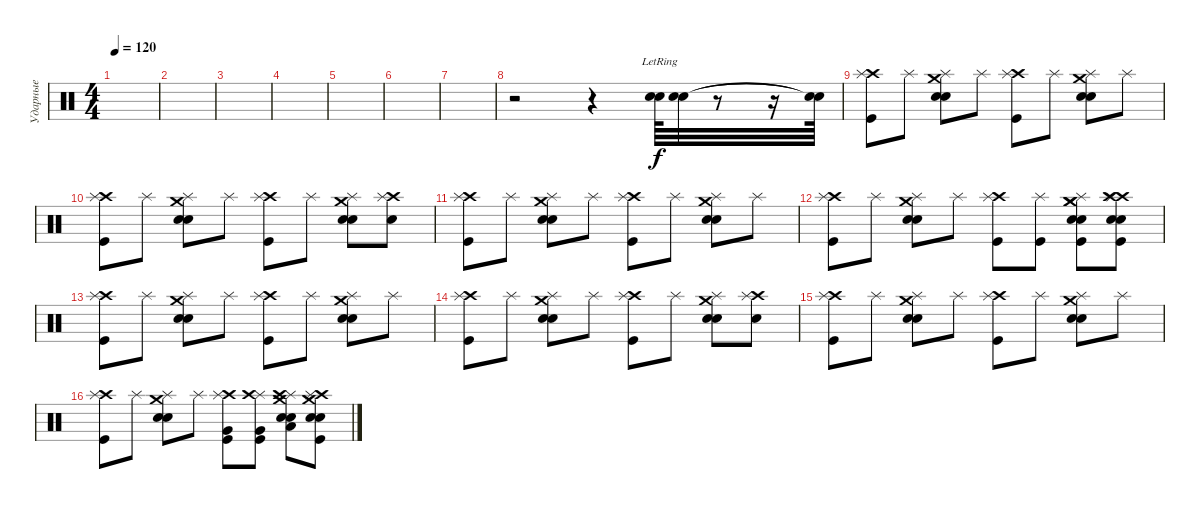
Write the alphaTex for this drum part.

\track ("Ударные" "Ударные") {instrument percussion}
\staff {score}
\articulation defaults
\ts (4 4)
\tempo 120
\clef neutral
\ks c
|
|
|
|
|
|
|
r.2 r.4 ("Electric Snare (hit)"{lr} "Electric Snare (hit)"{lr}).64 ("Electric Snare (hit)"{lr} "Electric Snare (hit)"{lr}).32 r.8 r.16 ("Snare (hit)"{t} "Snare (hit)"{t}).64 |
("Crash high (hit)" "Splash (hit)" "Kick (hit)").8 "Splash (hit)".8 ("Crash medium (hit)" "Splash (hit)" "Electric Snare (hit)" "Electric Snare (hit)").8 "Splash (hit)".8 ("Crash high (hit)" "Splash (hit)" "Kick (hit)").8 "Splash (hit)".8 ("Crash medium (hit)" "Splash (hit)" "Electric Snare (hit)" "Electric Snare (hit)").8 "Splash (hit)".8 |
("Crash high (hit)" "Splash (hit)" "Kick (hit)").8 "Splash (hit)".8 ("Crash medium (hit)" "Splash (hit)" "Electric Snare (hit)" "Electric Snare (hit)").8 "Splash (hit)".8 ("Crash high (hit)" "Splash (hit)" "Kick (hit)").8 "Splash (hit)".8 ("Crash medium (hit)" "Splash (hit)" "Electric Snare (hit)" "Electric Snare (hit)").8 ("Crash high (hit)" "Splash (hit)" "Electric Snare (hit)").8 |
("Crash high (hit)" "Splash (hit)" "Kick (hit)").8 "Splash (hit)".8 ("Crash medium (hit)" "Splash (hit)" "Electric Snare (hit)" "Electric Snare (hit)").8 "Splash (hit)".8 ("Crash high (hit)" "Splash (hit)" "Kick (hit)").8 "Splash (hit)".8 ("Crash medium (hit)" "Splash (hit)" "Electric Snare (hit)" "Electric Snare (hit)").8 "Splash (hit)".8 |
("Crash high (hit)" "Splash (hit)" "Kick (hit)").8 "Splash (hit)".8 ("Crash medium (hit)" "Splash (hit)" "Electric Snare (hit)" "Electric Snare (hit)").8 "Splash (hit)".8 ("Crash high (hit)" "Splash (hit)" "Kick (hit)").8 ("Splash (hit)" "Kick (hit)").8 ("Crash medium (hit)" "Splash (hit)" "Crash medium (hit)" "Electric Snare (hit)" "Electric Snare (hit)" "Kick (hit)").8 ("Crash high (hit)" "Splash (hit)" "Crash high (hit)" "Electric Snare (hit)" "Electric Snare (hit)" "Kick (hit)").8 |
("Crash high (hit)" "Splash (hit)" "Kick (hit)").8 "Splash (hit)".8 ("Crash medium (hit)" "Splash (hit)" "Electric Snare (hit)" "Electric Snare (hit)").8 "Splash (hit)".8 ("Crash high (hit)" "Splash (hit)" "Kick (hit)").8 "Splash (hit)".8 ("Crash medium (hit)" "Splash (hit)" "Electric Snare (hit)" "Electric Snare (hit)").8 "Splash (hit)".8 |
("Crash high (hit)" "Splash (hit)" "Kick (hit)").8 "Splash (hit)".8 ("Crash medium (hit)" "Splash (hit)" "Electric Snare (hit)" "Electric Snare (hit)").8 "Splash (hit)".8 ("Crash high (hit)" "Splash (hit)" "Kick (hit)").8 "Splash (hit)".8 ("Crash medium (hit)" "Splash (hit)" "Electric Snare (hit)" "Electric Snare (hit)").8 ("Crash high (hit)" "Splash (hit)" "Electric Snare (hit)").8 |
("Crash high (hit)" "Splash (hit)" "Kick (hit)").8 "Splash (hit)".8 ("Crash medium (hit)" "Splash (hit)" "Electric Snare (hit)" "Electric Snare (hit)").8 "Splash (hit)".8 ("Crash high (hit)" "Splash (hit)" "Kick (hit)").8 "Splash (hit)".8 ("Crash medium (hit)" "Splash (hit)" "Electric Snare (hit)" "Electric Snare (hit)").8 "Splash (hit)".8 |
("Crash high (hit)" "Splash (hit)" "Kick (hit)").8 "Splash (hit)".8 ("Crash medium (hit)" "Splash (hit)" "Electric Snare (hit)" "Electric Snare (hit)").8 "Splash (hit)".8 ("Crash high (hit)" "Splash (hit)" "Very Low Tom (hit)" "Kick (hit)").8 ("Splash (hit)" "Crash high (hit)" "Very Low Tom (hit)" "Kick (hit)").8 ("Crash medium (hit)" "Splash (hit)" "Crash high (hit)" "Electric Snare (hit)" "Electric Snare (hit)" "Low Floor Tom (hit)").8 ("Crash high (hit)" "Splash (hit)" "Crash medium (hit)" "Snare (hit) 2" "Snare (hit) 2" "Kick (hit)").8
